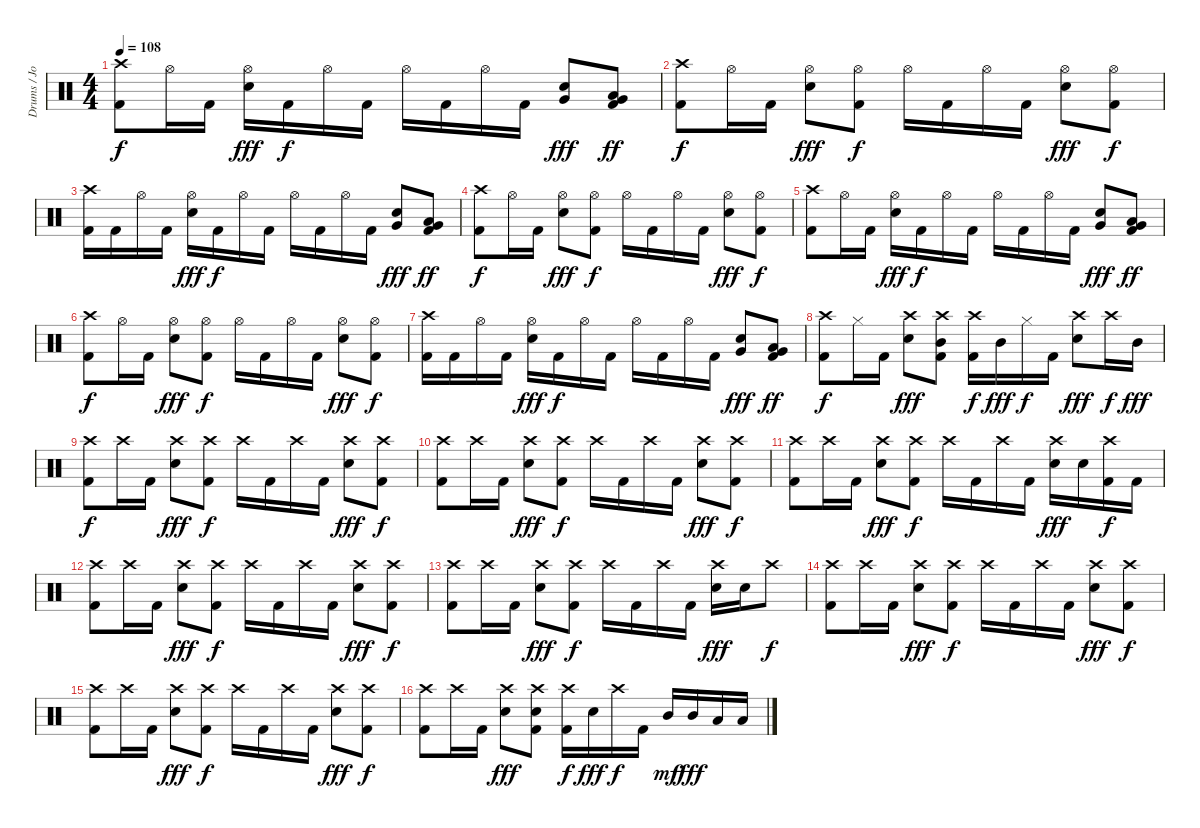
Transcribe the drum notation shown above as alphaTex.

\track ("Drums / Jon Wysocki" "Drums / Jo") {instrument percussion}
\staff {score}
\articulation defaults
\ts (4 4)
\tempo 108
\clef neutral
\ks c
("Crash high (hit)" "Kick (hit) 2").8{dy f} "Hi-Hat (open)".16 "Kick (hit) 2".16 ("Hi-Hat (open)" "Electric Snare (hit)").16{dy fff} "Kick (hit) 2".16{dy f} "Hi-Hat (open)".16 "Kick (hit) 2".16 "Hi-Hat (open)".16 "Kick (hit) 2".16 "Hi-Hat (open)".16 "Kick (hit) 2".16 ("Electric Snare (hit)" "Very Low Tom (hit)").8{dy fff} ("Low Tom (hit)" "Very Low Tom (hit)" "Kick (hit) 2").8{dy ff} |
("Crash high (hit)" "Kick (hit) 2").8{dy f} "Hi-Hat (open)".16 "Kick (hit) 2".16 ("Hi-Hat (open)" "Electric Snare (hit)").8{dy fff} ("Hi-Hat (open)" "Kick (hit) 2").8{dy f} "Hi-Hat (open)".16 "Kick (hit) 2".16 "Hi-Hat (open)".16 "Kick (hit) 2".16 ("Hi-Hat (open)" "Electric Snare (hit)").8{dy fff} ("Hi-Hat (open)" "Kick (hit) 2").8{dy f} |
("Crash high (hit)" "Kick (hit) 2").16 "Kick (hit) 2".16 "Hi-Hat (open)".16 "Kick (hit) 2".16 ("Hi-Hat (open)" "Electric Snare (hit)").16{dy fff} "Kick (hit) 2".16{dy f} "Hi-Hat (open)".16 "Kick (hit) 2".16 "Hi-Hat (open)".16 "Kick (hit) 2".16 "Hi-Hat (open)".16 "Kick (hit) 2".16 ("Electric Snare (hit)" "Very Low Tom (hit)").8{dy fff} ("Low Tom (hit)" "Very Low Tom (hit)" "Kick (hit) 2").8{dy ff} |
("Crash high (hit)" "Kick (hit) 2").8{dy f} "Hi-Hat (open)".16 "Kick (hit) 2".16 ("Hi-Hat (open)" "Electric Snare (hit)").8{dy fff} ("Hi-Hat (open)" "Kick (hit) 2").8{dy f} "Hi-Hat (open)".16 "Kick (hit) 2".16 "Hi-Hat (open)".16 "Kick (hit) 2".16 ("Hi-Hat (open)" "Electric Snare (hit)").8{dy fff} ("Hi-Hat (open)" "Kick (hit) 2").8{dy f} |
("Crash high (hit)" "Kick (hit) 2").8 "Hi-Hat (open)".16 "Kick (hit) 2".16 ("Hi-Hat (open)" "Electric Snare (hit)").16{dy fff} "Kick (hit) 2".16{dy f} "Hi-Hat (open)".16 "Kick (hit) 2".16 "Hi-Hat (open)".16 "Kick (hit) 2".16 "Hi-Hat (open)".16 "Kick (hit) 2".16 ("Electric Snare (hit)" "Very Low Tom (hit)").8{dy fff} ("Low Tom (hit)" "Very Low Tom (hit)" "Kick (hit) 2").8{dy ff} |
("Crash high (hit)" "Kick (hit) 2").8{dy f} "Hi-Hat (open)".16 "Kick (hit) 2".16 ("Hi-Hat (open)" "Electric Snare (hit)").8{dy fff} ("Hi-Hat (open)" "Kick (hit) 2").8{dy f} "Hi-Hat (open)".16 "Kick (hit) 2".16 "Hi-Hat (open)".16 "Kick (hit) 2".16 ("Hi-Hat (open)" "Electric Snare (hit)").8{dy fff} ("Hi-Hat (open)" "Kick (hit) 2").8{dy f} |
("Crash high (hit)" "Kick (hit) 2").16 "Kick (hit) 2".16 "Hi-Hat (open)".16 "Kick (hit) 2".16 ("Hi-Hat (open)" "Electric Snare (hit)").16{dy fff} "Kick (hit) 2".16{dy f} "Hi-Hat (open)".16 "Kick (hit) 2".16 "Hi-Hat (open)".16 "Kick (hit) 2".16 "Hi-Hat (open)".16 "Kick (hit) 2".16 ("Electric Snare (hit)" "Very Low Tom (hit)").8{dy fff} ("Low Tom (hit)" "Very Low Tom (hit)" "Kick (hit) 2").8{dy ff} |
("Crash high (hit)" "Kick (hit) 2").8{dy f} "Hi-Hat (closed)".16 "Kick (hit) 2".16 ("Crash high (hit)" "Electric Snare (hit)").8{dy fff} ("Crash high (hit)" "Mid Tom (hit)" "Kick (hit) 2").8 ("Crash high (hit)" "Kick (hit) 2").16{dy f} "Mid Tom (hit)".16{dy fff} "Hi-Hat (closed)".16{dy f} "Kick (hit) 2".16 ("Crash high (hit)" "Electric Snare (hit)").8{dy fff} "Crash high (hit)".16{dy f} "Mid Tom (hit)".16{dy fff} |
("Crash high (hit)" "Kick (hit) 2").8{dy f} "Crash high (hit)".16 "Kick (hit) 2".16 ("Crash high (hit)" "Electric Snare (hit)").8{dy fff} ("Crash high (hit)" "Kick (hit) 2").8{dy f} "Crash high (hit)".16 "Kick (hit) 2".16 "Crash high (hit)".16 "Kick (hit) 2".16 ("Crash high (hit)" "Electric Snare (hit)").8{dy fff} ("Crash high (hit)" "Kick (hit) 2").8{dy f} |
("Crash high (hit)" "Kick (hit) 2").8 "Crash high (hit)".16 "Kick (hit) 2".16 ("Crash high (hit)" "Electric Snare (hit)").8{dy fff} ("Crash high (hit)" "Kick (hit) 2").8{dy f} "Crash high (hit)".16 "Kick (hit) 2".16 "Crash high (hit)".16 "Kick (hit) 2".16 ("Crash high (hit)" "Electric Snare (hit)").8{dy fff} ("Crash high (hit)" "Kick (hit) 2").8{dy f} |
("Crash high (hit)" "Kick (hit) 2").8 "Crash high (hit)".16 "Kick (hit) 2".16 ("Crash high (hit)" "Electric Snare (hit)").8{dy fff} ("Crash high (hit)" "Kick (hit) 2").8{dy f} "Crash high (hit)".16 "Kick (hit) 2".16 "Crash high (hit)".16 "Kick (hit) 2".16 ("Crash high (hit)" "Electric Snare (hit)").16{dy fff} "Electric Snare (hit)".16 ("Crash high (hit)" "Kick (hit) 2").16{dy f} "Kick (hit) 2".16 |
("Crash high (hit)" "Kick (hit) 2").8 "Crash high (hit)".16 "Kick (hit) 2".16 ("Crash high (hit)" "Electric Snare (hit)").8{dy fff} ("Crash high (hit)" "Kick (hit) 2").8{dy f} "Crash high (hit)".16 "Kick (hit) 2".16 "Crash high (hit)".16 "Kick (hit) 2".16 ("Crash high (hit)" "Electric Snare (hit)").8{dy fff} ("Crash high (hit)" "Kick (hit) 2").8{dy f} |
("Crash high (hit)" "Kick (hit) 2").8 "Crash high (hit)".16 "Kick (hit) 2".16 ("Crash high (hit)" "Electric Snare (hit)").8{dy fff} ("Crash high (hit)" "Kick (hit) 2").8{dy f} "Crash high (hit)".16 "Kick (hit) 2".16 "Crash high (hit)".16 "Kick (hit) 2".16 ("Crash high (hit)" "Electric Snare (hit)").16{dy fff} "Electric Snare (hit)".16 "Crash high (hit)".8{dy f} |
("Crash high (hit)" "Kick (hit) 2").8 "Crash high (hit)".16 "Kick (hit) 2".16 ("Crash high (hit)" "Electric Snare (hit)").8{dy fff} ("Crash high (hit)" "Kick (hit) 2").8{dy f} "Crash high (hit)".16 "Kick (hit) 2".16 "Crash high (hit)".16 "Kick (hit) 2".16 ("Crash high (hit)" "Electric Snare (hit)").8{dy fff} ("Crash high (hit)" "Kick (hit) 2").8{dy f} |
("Crash high (hit)" "Kick (hit) 2").8 "Crash high (hit)".16 "Kick (hit) 2".16 ("Crash high (hit)" "Electric Snare (hit)").8{dy fff} ("Crash high (hit)" "Kick (hit) 2").8{dy f} "Crash high (hit)".16 "Kick (hit) 2".16 "Crash high (hit)".16 "Kick (hit) 2".16 ("Crash high (hit)" "Electric Snare (hit)").8{dy fff} ("Crash high (hit)" "Kick (hit) 2").8{dy f} |
("Crash high (hit)" "Kick (hit) 2").8 "Crash high (hit)".16 "Kick (hit) 2".16 ("Crash high (hit)" "Electric Snare (hit)").8{dy fff} ("Crash high (hit)" "Electric Snare (hit)" "Kick (hit) 2").8 ("Crash high (hit)" "Kick (hit) 2").16{dy f} "Electric Snare (hit)".16{dy fff} "Crash high (hit)".16{dy f} "Kick (hit) 2".16 "Mid Tom (hit)".16{dy mf} "Mid Tom (hit)".16{dy fff} "Low Tom (hit)".16 "Low Tom (hit)".16
